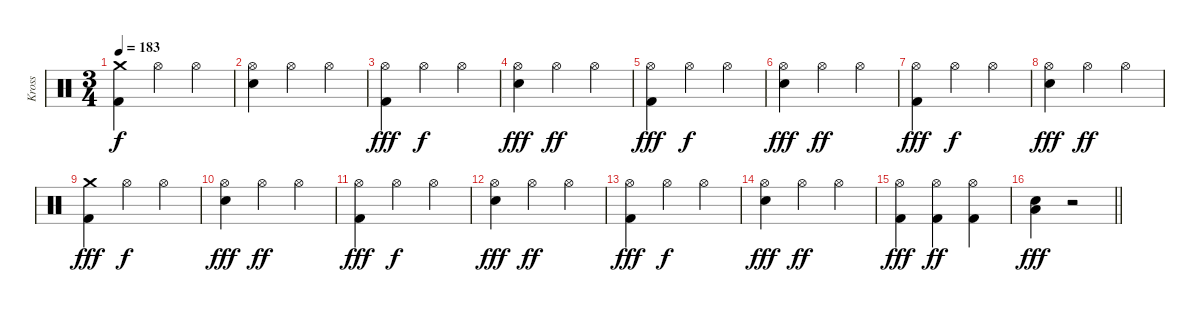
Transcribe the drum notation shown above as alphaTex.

\track ("Kross" "Kross") {instrument percussion}
\staff {score}
\articulation defaults
\ts (3 4)
\tempo 183
\clef neutral
\ks c
("Crash medium (hit)" "Kick (hit) 2").4{dy f} "Hi-Hat (open)".4 "Hi-Hat (open)".4 |
("Hi-Hat (open)" "Electric Snare (hit)").4 "Hi-Hat (open)".4 "Hi-Hat (open)".4 |
("Hi-Hat (open)" "Kick (hit) 2").4{dy fff} "Hi-Hat (open)".4{dy f} "Hi-Hat (open)".4 |
("Hi-Hat (open)" "Electric Snare (hit)").4{dy fff} "Hi-Hat (open)".4{dy ff} "Hi-Hat (open)".4 |
("Hi-Hat (open)" "Kick (hit) 2").4{dy fff} "Hi-Hat (open)".4{dy f} "Hi-Hat (open)".4 |
("Hi-Hat (open)" "Electric Snare (hit)").4{dy fff} "Hi-Hat (open)".4{dy ff} "Hi-Hat (open)".4 |
("Hi-Hat (open)" "Kick (hit) 2").4{dy fff} "Hi-Hat (open)".4{dy f} "Hi-Hat (open)".4 |
("Hi-Hat (open)" "Electric Snare (hit)").4{dy fff} "Hi-Hat (open)".4{dy ff} "Hi-Hat (open)".4 |
("Crash medium (hit)" "Kick (hit) 2").4{dy fff} "Hi-Hat (open)".4{dy f} "Hi-Hat (open)".4 |
("Hi-Hat (open)" "Electric Snare (hit)").4{dy fff} "Hi-Hat (open)".4{dy ff} "Hi-Hat (open)".4 |
("Hi-Hat (open)" "Kick (hit) 2").4{dy fff} "Hi-Hat (open)".4{dy f} "Hi-Hat (open)".4 |
("Hi-Hat (open)" "Electric Snare (hit)").4{dy fff} "Hi-Hat (open)".4{dy ff} "Hi-Hat (open)".4 |
("Hi-Hat (open)" "Kick (hit) 2").4{dy fff} "Hi-Hat (open)".4{dy f} "Hi-Hat (open)".4 |
("Hi-Hat (open)" "Electric Snare (hit)").4{dy fff} "Hi-Hat (open)".4{dy ff} "Hi-Hat (open)".4 |
("Hi-Hat (open)" "Kick (hit) 2").4{dy fff} ("Hi-Hat (open)" "Kick (hit) 2").4{dy ff} ("Hi-Hat (open)" "Kick (hit) 2").4 |
\barLineRight lightlight
("Low Floor Tom (hit)" "Electric Snare (hit)").4{dy fff} r.2
